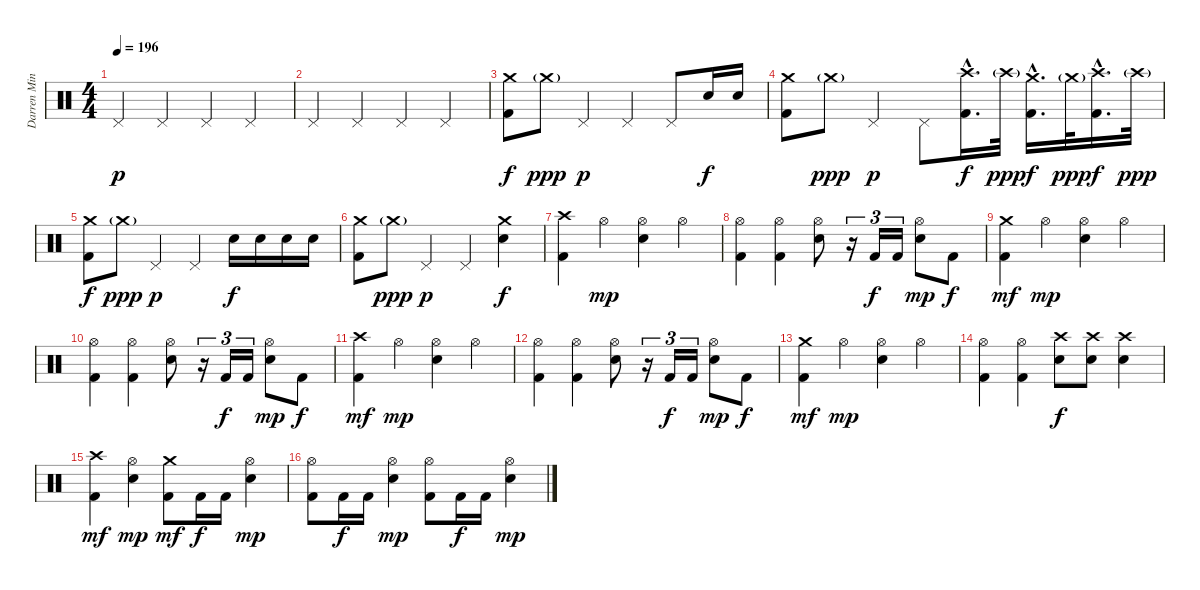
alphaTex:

\track ("Darren Minter" "Darren Min") {instrument percussion}
\staff {score}
\articulation defaults
\ts (4 4)
\tempo 196
\clef neutral
\ks c "Pedal Hi-Hat (hit)".4{dy p} "Pedal Hi-Hat (hit)".4 "Pedal Hi-Hat (hit)".4 "Pedal Hi-Hat (hit)".4
|
"Pedal Hi-Hat (hit)".4 "Pedal Hi-Hat (hit)".4 "Pedal Hi-Hat (hit)".4 "Pedal Hi-Hat (hit)".4 |
("Kick (hit) 2" "Crash medium (hit)").8{dy f} "Crash medium (hit)"{g}.8{dy ppp} "Pedal Hi-Hat (hit)".4{dy p} "Pedal Hi-Hat (hit)".4 "Pedal Hi-Hat (hit)".8 "Snare (hit) 2".16{dy f} "Snare (hit) 2".16 |
("Kick (hit) 2" "Crash medium (hit)").8 "Crash medium (hit)"{g}.8{dy ppp} "Pedal Hi-Hat (hit)".4{dy p} "Pedal Hi-Hat (hit)".8 ("Kick (hit) 2"{hac} "Crash high (hit)"{hac}).16{d dy f} "Crash high (hit)"{g}.32{dy ppp} ("Kick (hit) 2"{hac} "Crash medium (hit)"{hac}).16{d dy f} "Crash medium (hit)"{g}.32{dy ppp} ("Kick (hit) 2"{hac} "Crash high (hit)"{hac}).16{d dy f} "Crash high (hit)"{g}.32{dy ppp} |
("Kick (hit) 2" "Crash medium (hit)").8{dy f} "Crash medium (hit)"{g}.8{dy ppp} "Pedal Hi-Hat (hit)".4{dy p} "Pedal Hi-Hat (hit)".4 "Snare (hit) 2".16{dy f} "Snare (hit) 2".16 "Snare (hit) 2".16 "Snare (hit) 2".16 |
("Kick (hit) 2" "Crash medium (hit)").8 "Crash medium (hit)"{g}.8{dy ppp} "Pedal Hi-Hat (hit)".4{dy p} "Pedal Hi-Hat (hit)".4 ("Crash medium (hit)" "Snare (hit) 2").4{dy f} |
("Kick (hit) 2" "Crash high (hit)").4 "Hi-Hat (open)".4{dy mp} ("Hi-Hat (open)" "Snare (hit) 2").4 "Hi-Hat (open)".4 |
("Kick (hit) 2" "Hi-Hat (open)").4 ("Kick (hit) 2" "Hi-Hat (open)").4 ("Hi-Hat (open)" "Snare (hit) 2").8 r.16{tu (3 2)} "Kick (hit) 2".16{tu (3 2) dy f} "Kick (hit) 2".16{tu (3 2)} ("Hi-Hat (open)" "Snare (hit) 2").8{dy mp} "Kick (hit) 2".8{dy f} |
("Kick (hit) 2" "Crash medium (hit)").4{dy mf} "Hi-Hat (open)".4{dy mp} ("Hi-Hat (open)" "Snare (hit) 2").4 "Hi-Hat (open)".4 |
("Kick (hit) 2" "Hi-Hat (open)").4 ("Kick (hit) 2" "Hi-Hat (open)").4 ("Hi-Hat (open)" "Snare (hit) 2").8 r.16{tu (3 2)} "Kick (hit) 2".16{tu (3 2) dy f} "Kick (hit) 2".16{tu (3 2)} ("Hi-Hat (open)" "Snare (hit) 2").8{dy mp} "Kick (hit) 2".8{dy f} |
("Kick (hit) 2" "Crash high (hit)").4{dy mf} "Hi-Hat (open)".4{dy mp} ("Hi-Hat (open)" "Snare (hit) 2").4 "Hi-Hat (open)".4 |
("Kick (hit) 2" "Hi-Hat (open)").4 ("Kick (hit) 2" "Hi-Hat (open)").4 ("Hi-Hat (open)" "Snare (hit) 2").8 r.16{tu (3 2)} "Kick (hit) 2".16{tu (3 2) dy f} "Kick (hit) 2".16{tu (3 2)} ("Hi-Hat (open)" "Snare (hit) 2").8{dy mp} "Kick (hit) 2".8{dy f} |
("Kick (hit) 2" "Crash medium (hit)").4{dy mf} "Hi-Hat (open)".4{dy mp} ("Hi-Hat (open)" "Snare (hit) 2").4 "Hi-Hat (open)".4 |
("Kick (hit) 2" "Hi-Hat (open)").4 ("Kick (hit) 2" "Hi-Hat (open)").4 ("Crash high (hit)" "Snare (hit) 2").8{dy f} ("Crash high (hit)" "Snare (hit) 2").8 ("Crash high (hit)" "Snare (hit) 2").4 |
("Kick (hit) 2" "Crash high (hit)").4{dy mf} ("Hi-Hat (open)" "Snare (hit) 2").4{dy mp} ("Kick (hit) 2" "Crash medium (hit)").8{dy mf} "Kick (hit) 2".16{dy f} "Kick (hit) 2".16 ("Hi-Hat (open)" "Snare (hit) 2").4{dy mp} |
("Kick (hit) 2" "Hi-Hat (open)").8 "Kick (hit) 2".16{dy f} "Kick (hit) 2".16 ("Hi-Hat (open)" "Snare (hit) 2").4{dy mp} ("Kick (hit) 2" "Hi-Hat (open)").8 "Kick (hit) 2".16{dy f} "Kick (hit) 2".16 ("Hi-Hat (open)" "Snare (hit) 2").4{dy mp}
